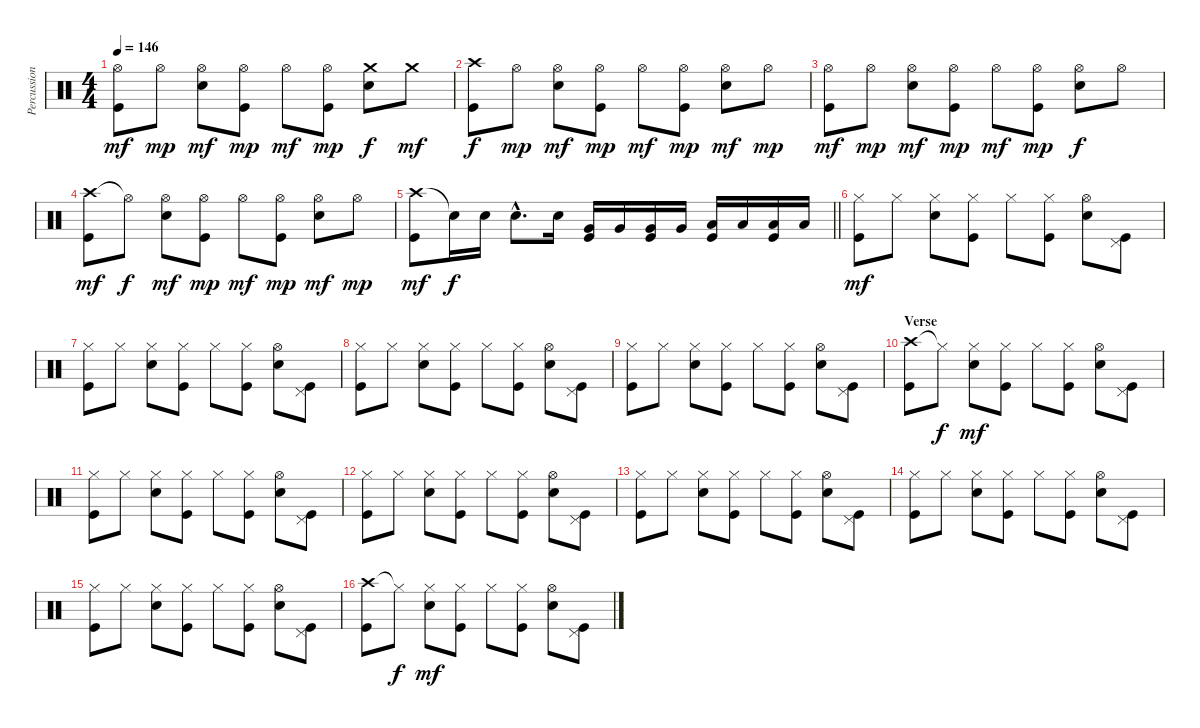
\track ("Percussion" "Percussion") {instrument percussion}
\staff {score}
\articulation defaults
\ts (4 4)
\tempo 146
\clef neutral
\ks c
("Hi-Hat (open)" "Kick (hit)").8{dy mf} "Hi-Hat (open)".8{dy mp} ("Hi-Hat (open)" "Snare (hit) 2").8{dy mf} ("Hi-Hat (open)" "Kick (hit)").8{dy mp} "Hi-Hat (open)".8{dy mf} ("Hi-Hat (open)" "Kick (hit)").8{dy mp} ("Crash medium (hit)" "Snare (hit) 2").8{dy f} "Crash medium (hit)".8{dy mf} |
("Crash high (hit)" "Kick (hit)").8{dy f} "Hi-Hat (open)".8{dy mp} ("Hi-Hat (open)" "Snare (hit) 2").8{dy mf} ("Hi-Hat (open)" "Kick (hit)").8{dy mp} "Hi-Hat (open)".8{dy mf} ("Hi-Hat (open)" "Kick (hit)").8{dy mp} ("Hi-Hat (open)" "Snare (hit) 2").8{dy mf} "Hi-Hat (open)".8{dy mp} |
("Hi-Hat (open)" "Kick (hit)").8{dy mf} "Hi-Hat (open)".8{dy mp} ("Hi-Hat (open)" "Snare (hit) 2").8{dy mf} ("Hi-Hat (open)" "Kick (hit)").8{dy mp} "Hi-Hat (open)".8{dy mf} ("Hi-Hat (open)" "Kick (hit)").8{dy mp} ("Hi-Hat (open)" "Snare (hit) 2").8{dy f} "Hi-Hat (open)".8 |
("Crash high (hit)" "Kick (hit)").8{dy mf} "Hi-Hat (open)"{t}.8{dy f} ("Hi-Hat (open)" "Snare (hit) 2").8{dy mf} ("Hi-Hat (open)" "Kick (hit)").8{dy mp} "Hi-Hat (open)".8{dy mf} ("Hi-Hat (open)" "Kick (hit)").8{dy mp} ("Hi-Hat (open)" "Snare (hit) 2").8{dy mf} "Hi-Hat (open)".8{dy mp} |
\barLineRight lightlight
("Crash high (hit)" "Kick (hit)").8{dy mf} "Snare (hit)"{t}.16{dy f} "Snare (hit) 2".16 "Snare (hit) 2"{hac}.8{d} "Snare (hit) 2".16 ("Very Low Tom (hit)" "Kick (hit)").16 "Very Low Tom (hit)".16 ("Very Low Tom (hit)" "Kick (hit)").16 "Very Low Tom (hit)".16 ("Low Floor Tom (hit)" "Kick (hit)").16 "Low Floor Tom (hit)".16 ("Low Floor Tom (hit)" "Kick (hit)").16 "Low Floor Tom (hit)".16 |
("Hi-Hat (closed)" "Kick (hit)").8{dy mf} "Hi-Hat (closed)".8 ("Hi-Hat (closed)" "Snare (hit) 2").8 ("Hi-Hat (closed)" "Kick (hit)").8 "Hi-Hat (closed)".8 ("Hi-Hat (closed)" "Kick (hit)").8 ("Hi-Hat (open)" "Snare (hit) 2").8 ("Pedal Hi-Hat (hit)" "Kick (hit)").8 |
("Hi-Hat (closed)" "Kick (hit)").8 "Hi-Hat (closed)".8 ("Hi-Hat (closed)" "Snare (hit) 2").8 ("Hi-Hat (closed)" "Kick (hit)").8 "Hi-Hat (closed)".8 ("Hi-Hat (closed)" "Kick (hit)").8 ("Hi-Hat (open)" "Snare (hit) 2").8 ("Pedal Hi-Hat (hit)" "Kick (hit)").8 |
("Hi-Hat (closed)" "Kick (hit)").8 "Hi-Hat (closed)".8 ("Hi-Hat (closed)" "Snare (hit) 2").8 ("Hi-Hat (closed)" "Kick (hit)").8 "Hi-Hat (closed)".8 ("Hi-Hat (closed)" "Kick (hit)").8 ("Hi-Hat (open)" "Snare (hit) 2").8 ("Pedal Hi-Hat (hit)" "Kick (hit)").8 |
("Hi-Hat (closed)" "Kick (hit)").8 "Hi-Hat (closed)".8 ("Hi-Hat (closed)" "Snare (hit) 2").8 ("Hi-Hat (closed)" "Kick (hit)").8 "Hi-Hat (closed)".8 ("Hi-Hat (closed)" "Kick (hit)").8 ("Hi-Hat (open)" "Snare (hit) 2").8 ("Pedal Hi-Hat (hit)" "Kick (hit)").8 |
\section ("" "Verse")
("Crash high (hit)" "Kick (hit)").8 "Hi-Hat (closed)"{t}.8{dy f} ("Hi-Hat (closed)" "Snare (hit) 2").8{dy mf} ("Hi-Hat (closed)" "Kick (hit)").8 "Hi-Hat (closed)".8 ("Hi-Hat (closed)" "Kick (hit)").8 ("Hi-Hat (open)" "Snare (hit) 2").8 ("Pedal Hi-Hat (hit)" "Kick (hit)").8 |
("Hi-Hat (closed)" "Kick (hit)").8 "Hi-Hat (closed)".8 ("Hi-Hat (closed)" "Snare (hit) 2").8 ("Hi-Hat (closed)" "Kick (hit)").8 "Hi-Hat (closed)".8 ("Hi-Hat (closed)" "Kick (hit)").8 ("Hi-Hat (open)" "Snare (hit) 2").8 ("Pedal Hi-Hat (hit)" "Kick (hit)").8 |
("Hi-Hat (closed)" "Kick (hit)").8 "Hi-Hat (closed)".8 ("Hi-Hat (closed)" "Snare (hit) 2").8 ("Hi-Hat (closed)" "Kick (hit)").8 "Hi-Hat (closed)".8 ("Hi-Hat (closed)" "Kick (hit)").8 ("Hi-Hat (open)" "Snare (hit) 2").8 ("Pedal Hi-Hat (hit)" "Kick (hit)").8 |
("Hi-Hat (closed)" "Kick (hit)").8 "Hi-Hat (closed)".8 ("Hi-Hat (closed)" "Snare (hit) 2").8 ("Hi-Hat (closed)" "Kick (hit)").8 "Hi-Hat (closed)".8 ("Hi-Hat (closed)" "Kick (hit)").8 ("Hi-Hat (open)" "Snare (hit) 2").8 ("Pedal Hi-Hat (hit)" "Kick (hit)").8 |
("Hi-Hat (closed)" "Kick (hit)").8 "Hi-Hat (closed)".8 ("Hi-Hat (closed)" "Snare (hit) 2").8 ("Hi-Hat (closed)" "Kick (hit)").8 "Hi-Hat (closed)".8 ("Hi-Hat (closed)" "Kick (hit)").8 ("Hi-Hat (open)" "Snare (hit) 2").8 ("Pedal Hi-Hat (hit)" "Kick (hit)").8 |
("Hi-Hat (closed)" "Kick (hit)").8 "Hi-Hat (closed)".8 ("Hi-Hat (closed)" "Snare (hit) 2").8 ("Hi-Hat (closed)" "Kick (hit)").8 "Hi-Hat (closed)".8 ("Hi-Hat (closed)" "Kick (hit)").8 ("Hi-Hat (open)" "Snare (hit) 2").8 ("Pedal Hi-Hat (hit)" "Kick (hit)").8 |
("Crash high (hit)" "Kick (hit)").8 "Hi-Hat (closed)"{t}.8{dy f} ("Hi-Hat (closed)" "Snare (hit) 2").8{dy mf} ("Hi-Hat (closed)" "Kick (hit)").8 "Hi-Hat (closed)".8 ("Hi-Hat (closed)" "Kick (hit)").8 ("Hi-Hat (open)" "Snare (hit) 2").8 ("Pedal Hi-Hat (hit)" "Kick (hit)").8
